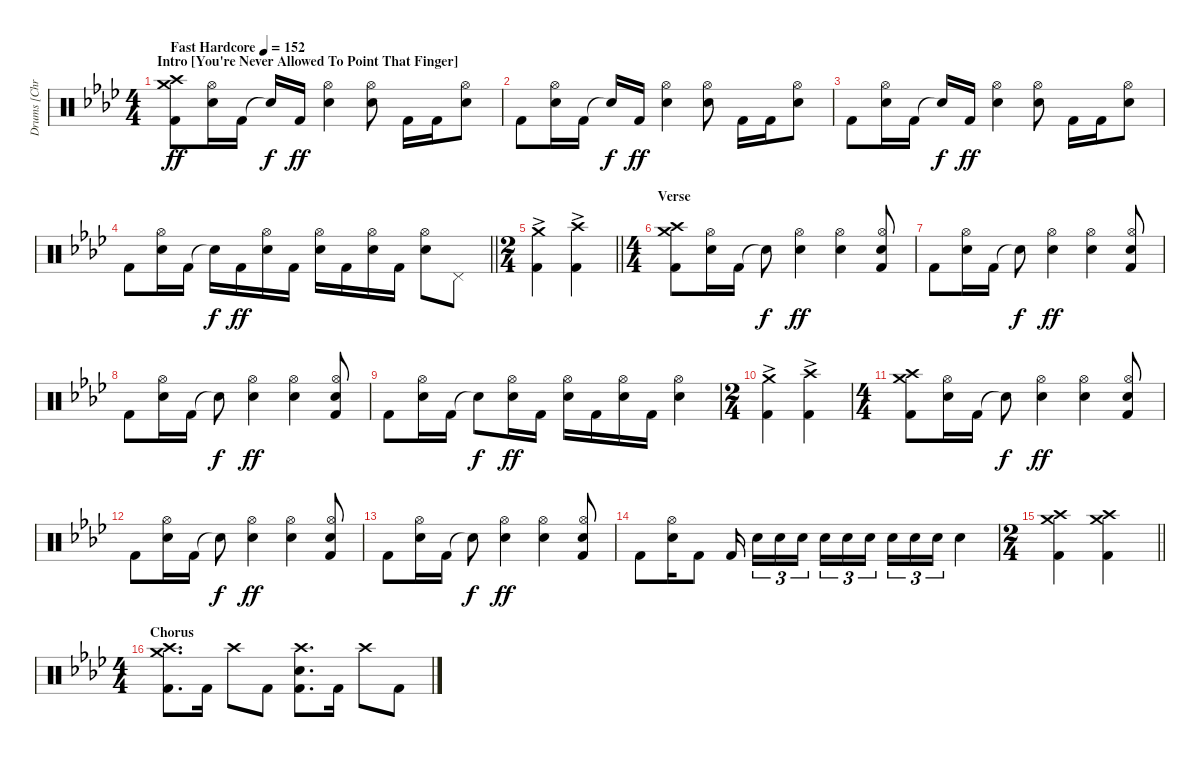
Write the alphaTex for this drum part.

\track ("Drums [Chris Hornbrook]" "Drums [Chr") {instrument percussion}
\staff {score}
\articulation defaults
\ts (4 4)
\section ("" "Intro [You're Never Allowed To Point That Finger]")
\tempo (152 "Fast Hardcore")
\clef neutral
\ks fminor
("Crash medium (hit)" "Crash high (hit)" "Kick (hit) 2").8{dy ff} ("Hi-Hat (open)" "Electric Snare (hit)").16 "Kick (hit) 2".16 "Snare (hit)"{t}.16{dy f} "Kick (hit) 2".16{dy ff} ("Hi-Hat (open)" "Electric Snare (hit)").4 ("Hi-Hat (open)" "Electric Snare (hit)").8 "Kick (hit) 2".16 "Kick (hit) 2".16 ("Hi-Hat (open)" "Electric Snare (hit)").8 |
"Kick (hit) 2".8 ("Hi-Hat (open)" "Electric Snare (hit)").16 "Kick (hit) 2".16 "Snare (hit)"{t}.16{dy f} "Kick (hit) 2".16{dy ff} ("Hi-Hat (open)" "Electric Snare (hit)").4 ("Hi-Hat (open)" "Electric Snare (hit)").8 "Kick (hit) 2".16 "Kick (hit) 2".16 ("Hi-Hat (open)" "Electric Snare (hit)").8 |
"Kick (hit) 2".8 ("Hi-Hat (open)" "Electric Snare (hit)").16 "Kick (hit) 2".16 "Snare (hit)"{t}.16{dy f} "Kick (hit) 2".16{dy ff} ("Hi-Hat (open)" "Electric Snare (hit)").4 ("Hi-Hat (open)" "Electric Snare (hit)").8 "Kick (hit) 2".16 "Kick (hit) 2".16 ("Hi-Hat (open)" "Electric Snare (hit)").8 |
\barLineRight lightlight "Kick (hit) 2".8
("Hi-Hat (open)" "Electric Snare (hit)").16 "Kick (hit) 2".16 "Snare (hit)"{t}.16{dy f} "Kick (hit) 2".16{dy ff} ("Hi-Hat (open)" "Electric Snare (hit)").16 "Kick (hit) 2".16 ("Hi-Hat (open)" "Electric Snare (hit)").16 "Kick (hit) 2".16 ("Hi-Hat (open)" "Electric Snare (hit)").16 "Kick (hit) 2".16 ("Hi-Hat (open)" "Electric Snare (hit)").8 "Pedal Hi-Hat (hit)".8 |
\ts (2 4)
\section ("" "")
\barLineRight lightlight
("Crash medium (hit)"{ac} "Kick (hit) 2").4 ("Crash high (hit)"{ac} "Kick (hit) 2").4 |
\ts (4 4)
\section ("" "Verse")
("Crash medium (hit)" "Crash high (hit)" "Kick (hit) 2").8 ("Hi-Hat (open)" "Electric Snare (hit)").16 "Kick (hit) 2".16 "Snare (hit)"{t}.8{dy f} ("Hi-Hat (open)" "Electric Snare (hit)").4{dy ff} ("Hi-Hat (open)" "Electric Snare (hit)").4 ("Hi-Hat (open)" "Electric Snare (hit)" "Kick (hit) 2").8 |
"Kick (hit) 2".8 ("Hi-Hat (open)" "Electric Snare (hit)").16 "Kick (hit) 2".16 "Snare (hit)"{t}.8{dy f} ("Hi-Hat (open)" "Electric Snare (hit)").4{dy ff} ("Hi-Hat (open)" "Electric Snare (hit)").4 ("Hi-Hat (open)" "Electric Snare (hit)" "Kick (hit) 2").8 |
"Kick (hit) 2".8 ("Hi-Hat (open)" "Electric Snare (hit)").16 "Kick (hit) 2".16 "Snare (hit)"{t}.8{dy f} ("Hi-Hat (open)" "Electric Snare (hit)").4{dy ff} ("Hi-Hat (open)" "Electric Snare (hit)").4 ("Hi-Hat (open)" "Electric Snare (hit)" "Kick (hit) 2").8 |
"Kick (hit) 2".8 ("Hi-Hat (open)" "Electric Snare (hit)").16 "Kick (hit) 2".16 "Snare (hit)"{t}.8{dy f} ("Hi-Hat (open)" "Electric Snare (hit)").16{dy ff} "Kick (hit) 2".16 ("Hi-Hat (open)" "Electric Snare (hit)").16 "Kick (hit) 2".16 ("Hi-Hat (open)" "Electric Snare (hit)").16 "Kick (hit) 2".16 ("Hi-Hat (open)" "Electric Snare (hit)").4 |
\ts (2 4)
("Crash medium (hit)"{ac} "Kick (hit) 2").4 ("Crash high (hit)"{ac} "Kick (hit) 2").4 |
\ts (4 4)
("Crash medium (hit)" "Crash high (hit)" "Kick (hit) 2").8 ("Hi-Hat (open)" "Electric Snare (hit)").16 "Kick (hit) 2".16 "Snare (hit)"{t}.8{dy f} ("Hi-Hat (open)" "Electric Snare (hit)").4{dy ff} ("Hi-Hat (open)" "Electric Snare (hit)").4 ("Hi-Hat (open)" "Electric Snare (hit)" "Kick (hit) 2").8 |
"Kick (hit) 2".8 ("Hi-Hat (open)" "Electric Snare (hit)").16 "Kick (hit) 2".16 "Snare (hit)"{t}.8{dy f} ("Hi-Hat (open)" "Electric Snare (hit)").4{dy ff} ("Hi-Hat (open)" "Electric Snare (hit)").4 ("Hi-Hat (open)" "Electric Snare (hit)" "Kick (hit) 2").8 |
"Kick (hit) 2".8 ("Hi-Hat (open)" "Electric Snare (hit)").16 "Kick (hit) 2".16 "Snare (hit)"{t}.8{dy f} ("Hi-Hat (open)" "Electric Snare (hit)").4{dy ff} ("Hi-Hat (open)" "Electric Snare (hit)").4 ("Hi-Hat (open)" "Electric Snare (hit)" "Kick (hit) 2").8 |
"Kick (hit) 2".8 ("Hi-Hat (open)" "Electric Snare (hit)").16 "Kick (hit) 2".8 "Kick (hit) 2".16{beam splitsecondary} "Electric Snare (hit)".16{tu (3 2)} "Electric Snare (hit)".16{tu (3 2)} "Electric Snare (hit)".16{tu (3 2)} "Electric Snare (hit)".16{tu (3 2)} "Electric Snare (hit)".16{tu (3 2)} "Electric Snare (hit)".16{tu (3 2) beam splitsecondary} "Electric Snare (hit)".16{tu (3 2)} "Electric Snare (hit)".16{tu (3 2)} "Electric Snare (hit)".16{tu (3 2)} "Electric Snare (hit)".4 |
\ts (2 4)
\barLineRight lightlight
("Crash medium (hit)" "Crash high (hit)" "Kick (hit) 2").4 ("Crash medium (hit)" "Crash high (hit)" "Kick (hit) 2").4 |
\ts (4 4)
\section ("" "Chorus")
("Crash medium (hit)" "Crash high (hit)" "Kick (hit) 2").8{d} "Kick (hit) 2".16 "Crash high (hit)".8 "Kick (hit) 2".8 ("Crash high (hit)" "Electric Snare (hit)" "Kick (hit) 2").8{d} "Kick (hit) 2".16 "Crash high (hit)".8 "Kick (hit) 2".8
